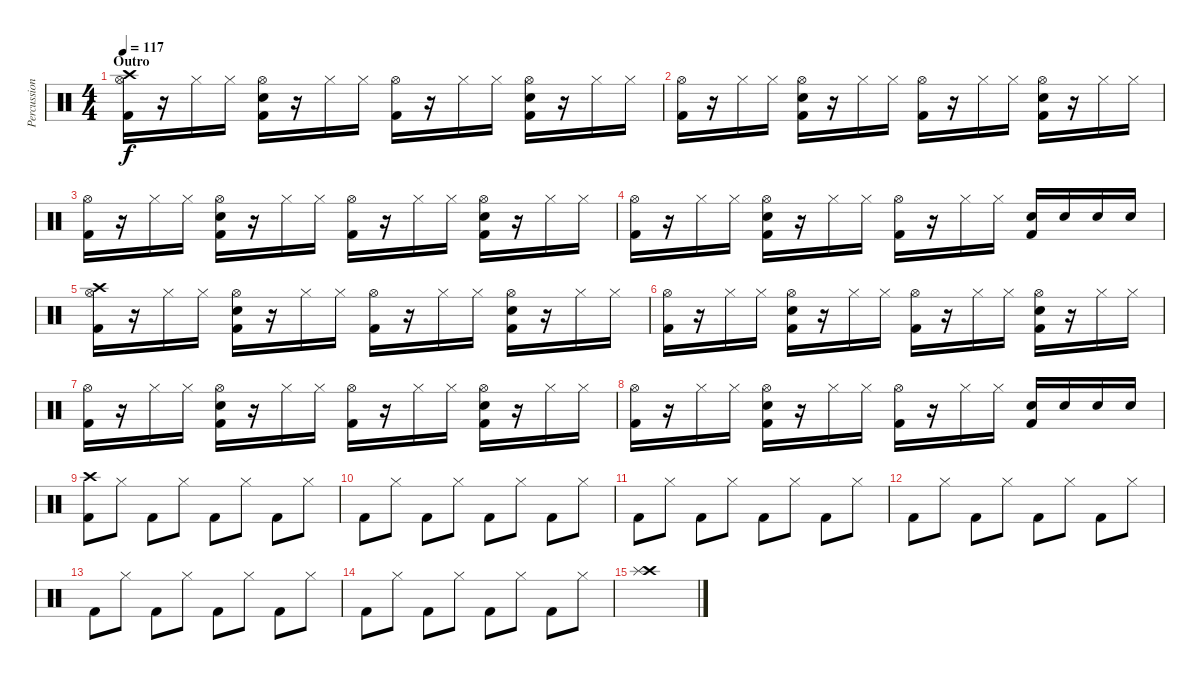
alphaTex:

\track ("Percussion" "Percussion") {instrument percussion}
\staff {score}
\articulation defaults
\ts (4 4)
\section ("" "Outro")
\tempo 117
\clef neutral
\ks c
("Crash high (hit)" "Hi-Hat (open)" "Kick (hit) 2").16{dy f} r.16 "Hi-Hat (closed)".16 "Hi-Hat (closed)".16 ("Hi-Hat (open)" "Snare (hit) 2" "Kick (hit) 2").16 r.16 "Hi-Hat (closed)".16 "Hi-Hat (closed)".16 ("Hi-Hat (open)" "Kick (hit) 2").16 r.16 "Hi-Hat (closed)".16 "Hi-Hat (closed)".16 ("Hi-Hat (open)" "Snare (hit) 2" "Kick (hit) 2").16 r.16 "Hi-Hat (closed)".16 "Hi-Hat (closed)".16 |
("Hi-Hat (open)" "Kick (hit) 2").16 r.16 "Hi-Hat (closed)".16 "Hi-Hat (closed)".16 ("Hi-Hat (open)" "Snare (hit) 2" "Kick (hit) 2").16 r.16 "Hi-Hat (closed)".16 "Hi-Hat (closed)".16 ("Hi-Hat (open)" "Kick (hit) 2").16 r.16 "Hi-Hat (closed)".16 "Hi-Hat (closed)".16 ("Hi-Hat (open)" "Snare (hit) 2" "Kick (hit) 2").16 r.16 "Hi-Hat (closed)".16 "Hi-Hat (closed)".16 |
("Hi-Hat (open)" "Kick (hit) 2").16 r.16 "Hi-Hat (closed)".16 "Hi-Hat (closed)".16 ("Hi-Hat (open)" "Snare (hit) 2" "Kick (hit) 2").16 r.16 "Hi-Hat (closed)".16 "Hi-Hat (closed)".16 ("Hi-Hat (open)" "Kick (hit) 2").16 r.16 "Hi-Hat (closed)".16 "Hi-Hat (closed)".16 ("Hi-Hat (open)" "Snare (hit) 2" "Kick (hit) 2").16 r.16 "Hi-Hat (closed)".16 "Hi-Hat (closed)".16 |
("Hi-Hat (open)" "Kick (hit) 2").16 r.16 "Hi-Hat (closed)".16 "Hi-Hat (closed)".16 ("Hi-Hat (open)" "Snare (hit) 2" "Kick (hit) 2").16 r.16 "Hi-Hat (closed)".16 "Hi-Hat (closed)".16 ("Hi-Hat (open)" "Kick (hit) 2").16 r.16 "Hi-Hat (closed)".16 "Hi-Hat (closed)".16 ("Snare (hit) 2" "Kick (hit) 2").16 "Snare (hit) 2".16 "Snare (hit) 2".16 "Snare (hit) 2".16 |
("Crash high (hit)" "Hi-Hat (open)" "Kick (hit) 2").16 r.16 "Hi-Hat (closed)".16 "Hi-Hat (closed)".16 ("Hi-Hat (open)" "Snare (hit) 2" "Kick (hit) 2").16 r.16 "Hi-Hat (closed)".16 "Hi-Hat (closed)".16 ("Hi-Hat (open)" "Kick (hit) 2").16 r.16 "Hi-Hat (closed)".16 "Hi-Hat (closed)".16 ("Hi-Hat (open)" "Snare (hit) 2" "Kick (hit) 2").16 r.16 "Hi-Hat (closed)".16 "Hi-Hat (closed)".16 |
("Hi-Hat (open)" "Kick (hit) 2").16 r.16 "Hi-Hat (closed)".16 "Hi-Hat (closed)".16 ("Hi-Hat (open)" "Snare (hit) 2" "Kick (hit) 2").16 r.16 "Hi-Hat (closed)".16 "Hi-Hat (closed)".16 ("Hi-Hat (open)" "Kick (hit) 2").16 r.16 "Hi-Hat (closed)".16 "Hi-Hat (closed)".16 ("Hi-Hat (open)" "Snare (hit) 2" "Kick (hit) 2").16 r.16 "Hi-Hat (closed)".16 "Hi-Hat (closed)".16 |
("Hi-Hat (open)" "Kick (hit) 2").16 r.16 "Hi-Hat (closed)".16 "Hi-Hat (closed)".16 ("Hi-Hat (open)" "Snare (hit) 2" "Kick (hit) 2").16 r.16 "Hi-Hat (closed)".16 "Hi-Hat (closed)".16 ("Hi-Hat (open)" "Kick (hit) 2").16 r.16 "Hi-Hat (closed)".16 "Hi-Hat (closed)".16 ("Hi-Hat (open)" "Snare (hit) 2" "Kick (hit) 2").16 r.16 "Hi-Hat (closed)".16 "Hi-Hat (closed)".16 |
("Hi-Hat (open)" "Kick (hit) 2").16 r.16 "Hi-Hat (closed)".16 "Hi-Hat (closed)".16 ("Hi-Hat (open)" "Snare (hit) 2" "Kick (hit) 2").16 r.16 "Hi-Hat (closed)".16 "Hi-Hat (closed)".16 ("Hi-Hat (open)" "Kick (hit) 2").16 r.16 "Hi-Hat (closed)".16 "Hi-Hat (closed)".16 ("Snare (hit) 2" "Kick (hit) 2").16 "Snare (hit) 2".16 "Snare (hit) 2".16 "Snare (hit) 2".16 |
("Crash high (hit)" "Kick (hit) 2").8 "Hi-Hat (closed)".8 "Kick (hit) 2".8 "Hi-Hat (closed)".8 "Kick (hit) 2".8 "Hi-Hat (closed)".8 "Kick (hit) 2".8 "Hi-Hat (closed)".8 |
"Kick (hit) 2".8 "Hi-Hat (closed)".8 "Kick (hit) 2".8 "Hi-Hat (closed)".8 "Kick (hit) 2".8 "Hi-Hat (closed)".8 "Kick (hit) 2".8 "Hi-Hat (closed)".8 |
"Kick (hit) 2".8 "Hi-Hat (closed)".8 "Kick (hit) 2".8 "Hi-Hat (closed)".8 "Kick (hit) 2".8 "Hi-Hat (closed)".8 "Kick (hit) 2".8 "Hi-Hat (closed)".8 |
"Kick (hit) 2".8 "Hi-Hat (closed)".8 "Kick (hit) 2".8 "Hi-Hat (closed)".8 "Kick (hit) 2".8 "Hi-Hat (closed)".8 "Kick (hit) 2".8 "Hi-Hat (closed)".8 |
"Kick (hit) 2".8 "Hi-Hat (closed)".8 "Kick (hit) 2".8 "Hi-Hat (closed)".8 "Kick (hit) 2".8 "Hi-Hat (closed)".8 "Kick (hit) 2".8 "Hi-Hat (closed)".8 |
"Kick (hit) 2".8 "Hi-Hat (closed)".8 "Kick (hit) 2".8 "Hi-Hat (closed)".8 "Kick (hit) 2".8 "Hi-Hat (closed)".8 "Kick (hit) 2".8 "Hi-Hat (closed)".8 |
("Crash high (hit)" "Splash (hit)").1
